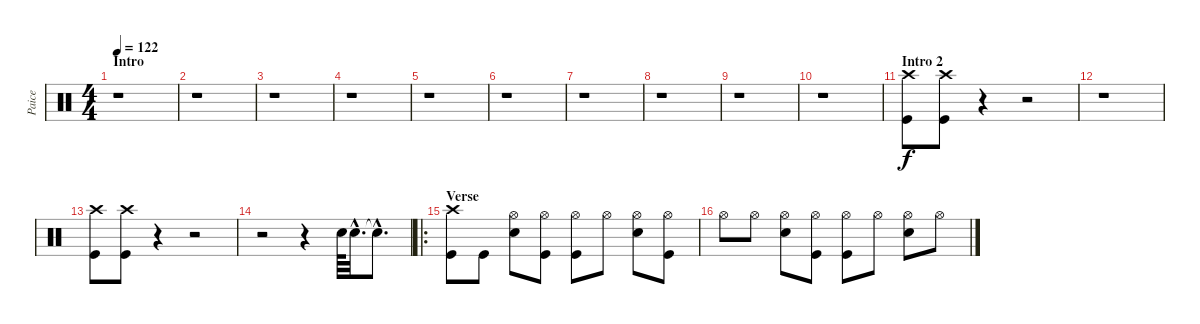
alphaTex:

\track ("Paice" "Paice") {instrument percussion}
\staff {score}
\articulation defaults
\ts (4 4)
\section ("" "Intro")
\tempo 122
\clef neutral
\ks c
r.1{dy f} |
r.1 |
r.1 |
r.1 |
r.1 |
r.1 |
r.1 |
r.1 |
r.1 |
r.1 |
\section ("" "Intro 2")
("Crash high (hit)" "Kick (hit)").8 ("Crash high (hit)" "Kick (hit)").8 r.4 r.2 |
r.1 |
("Crash high (hit)" "Kick (hit)").8 ("Crash high (hit)" "Kick (hit)").8 r.4 r.2 |
r.2 r.4 "Snare (hit) 2".64 "Snare (hit) 2"{hac}.32{d} "Snare (hit)"{hac t}.8{d} |
\ro
\section ("" "Verse")
("Crash high (hit)" "Kick (hit)").8 "Kick (hit)".8 ("Hi-Hat (open)" "Snare (hit) 2").8 ("Hi-Hat (open)" "Kick (hit)").8 ("Hi-Hat (open)" "Kick (hit)").8 "Hi-Hat (open)".8 ("Hi-Hat (open)" "Snare (hit) 2").8 ("Hi-Hat (open)" "Kick (hit)").8 |
"Hi-Hat (open)".8 "Hi-Hat (open)".8 ("Hi-Hat (open)" "Snare (hit) 2").8 ("Hi-Hat (open)" "Kick (hit)").8 ("Hi-Hat (open)" "Kick (hit)").8 "Hi-Hat (open)".8 ("Hi-Hat (open)" "Snare (hit) 2").8 "Hi-Hat (open)".8
